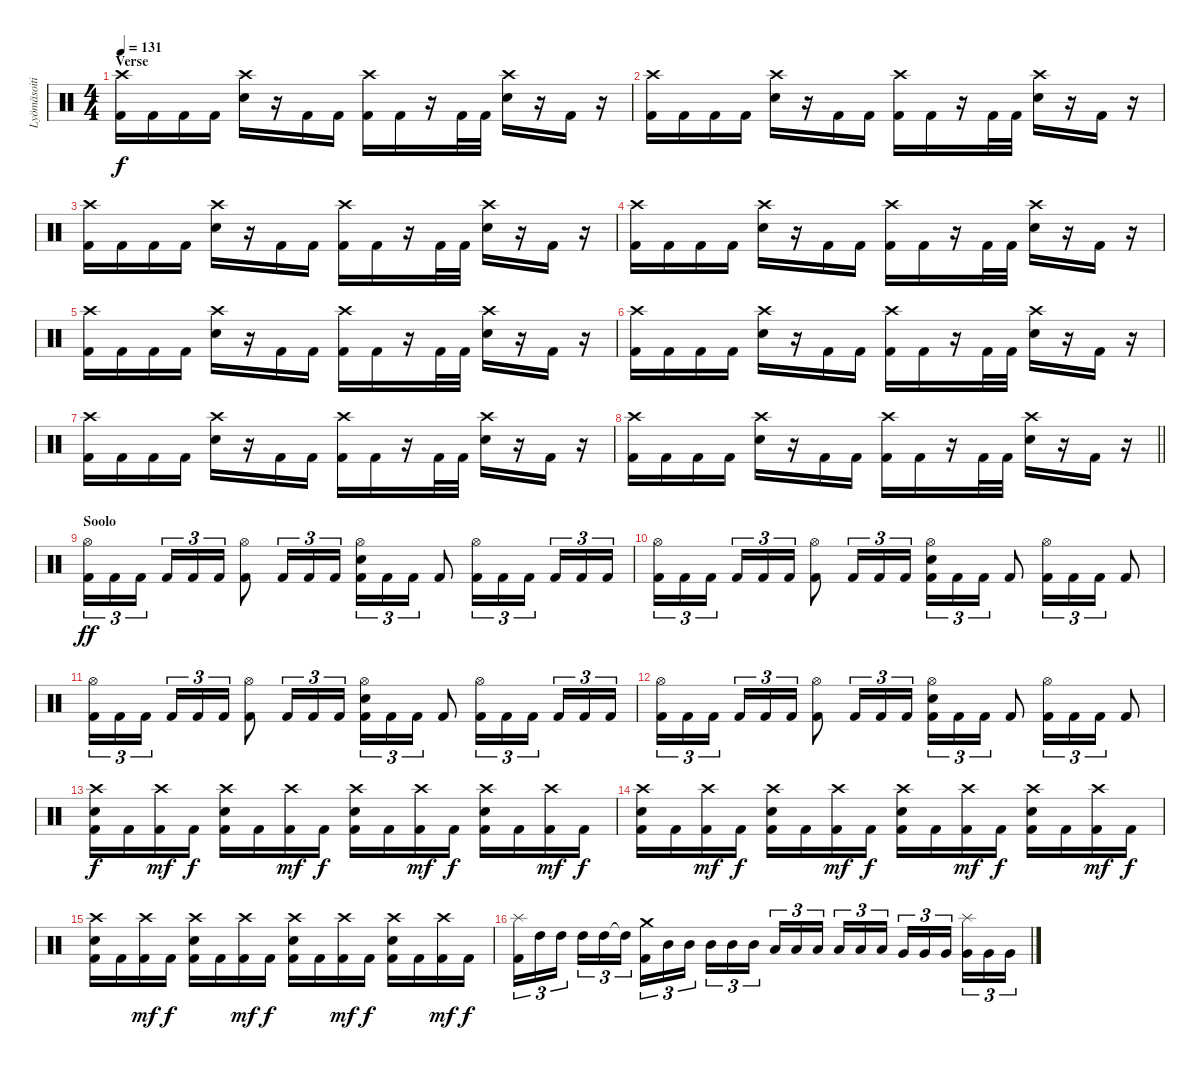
\track ("Lyömäsoitin" "Lyömäsoiti") {instrument percussion}
\staff {score}
\articulation defaults
\ts (4 4)
\section ("" "Verse")
\tempo 131
\clef neutral
\ks c
("Crash high (hit)" "Kick (hit) 2").16{dy f} "Kick (hit) 2".16 "Kick (hit) 2".16 "Kick (hit) 2".16 ("Crash high (hit)" "Electric Snare (hit)").16 r.16 "Kick (hit) 2".16 "Kick (hit) 2".16 ("Crash high (hit)" "Kick (hit) 2").16 "Kick (hit) 2".16 r.16 "Kick (hit) 2".32 "Kick (hit) 2".32 ("Crash high (hit)" "Electric Snare (hit)").16 r.16 "Kick (hit) 2".16 r.16 |
("Crash high (hit)" "Kick (hit) 2").16 "Kick (hit) 2".16 "Kick (hit) 2".16 "Kick (hit) 2".16 ("Crash high (hit)" "Electric Snare (hit)").16 r.16 "Kick (hit) 2".16 "Kick (hit) 2".16 ("Crash high (hit)" "Kick (hit) 2").16 "Kick (hit) 2".16 r.16 "Kick (hit) 2".32 "Kick (hit) 2".32 ("Crash high (hit)" "Electric Snare (hit)").16 r.16 "Kick (hit) 2".16 r.16 |
("Crash high (hit)" "Kick (hit) 2").16 "Kick (hit) 2".16 "Kick (hit) 2".16 "Kick (hit) 2".16 ("Crash high (hit)" "Electric Snare (hit)").16 r.16 "Kick (hit) 2".16 "Kick (hit) 2".16 ("Crash high (hit)" "Kick (hit) 2").16 "Kick (hit) 2".16 r.16 "Kick (hit) 2".32 "Kick (hit) 2".32 ("Crash high (hit)" "Electric Snare (hit)").16 r.16 "Kick (hit) 2".16 r.16 |
("Crash high (hit)" "Kick (hit) 2").16 "Kick (hit) 2".16 "Kick (hit) 2".16 "Kick (hit) 2".16 ("Crash high (hit)" "Electric Snare (hit)").16 r.16 "Kick (hit) 2".16 "Kick (hit) 2".16 ("Crash high (hit)" "Kick (hit) 2").16 "Kick (hit) 2".16 r.16 "Kick (hit) 2".32 "Kick (hit) 2".32 ("Crash high (hit)" "Electric Snare (hit)").16 r.16 "Kick (hit) 2".16 r.16 |
("Crash high (hit)" "Kick (hit) 2").16 "Kick (hit) 2".16 "Kick (hit) 2".16 "Kick (hit) 2".16 ("Crash high (hit)" "Electric Snare (hit)").16 r.16 "Kick (hit) 2".16 "Kick (hit) 2".16 ("Crash high (hit)" "Kick (hit) 2").16 "Kick (hit) 2".16 r.16 "Kick (hit) 2".32 "Kick (hit) 2".32 ("Crash high (hit)" "Electric Snare (hit)").16 r.16 "Kick (hit) 2".16 r.16 |
("Crash high (hit)" "Kick (hit) 2").16 "Kick (hit) 2".16 "Kick (hit) 2".16 "Kick (hit) 2".16 ("Crash high (hit)" "Electric Snare (hit)").16 r.16 "Kick (hit) 2".16 "Kick (hit) 2".16 ("Crash high (hit)" "Kick (hit) 2").16 "Kick (hit) 2".16 r.16 "Kick (hit) 2".32 "Kick (hit) 2".32 ("Crash high (hit)" "Electric Snare (hit)").16 r.16 "Kick (hit) 2".16 r.16 |
("Crash high (hit)" "Kick (hit) 2").16 "Kick (hit) 2".16 "Kick (hit) 2".16 "Kick (hit) 2".16 ("Crash high (hit)" "Electric Snare (hit)").16 r.16 "Kick (hit) 2".16 "Kick (hit) 2".16 ("Crash high (hit)" "Kick (hit) 2").16 "Kick (hit) 2".16 r.16 "Kick (hit) 2".32 "Kick (hit) 2".32 ("Crash high (hit)" "Electric Snare (hit)").16 r.16 "Kick (hit) 2".16 r.16 |
\barLineRight lightlight
("Crash high (hit)" "Kick (hit) 2").16 "Kick (hit) 2".16 "Kick (hit) 2".16 "Kick (hit) 2".16 ("Crash high (hit)" "Electric Snare (hit)").16 r.16 "Kick (hit) 2".16 "Kick (hit) 2".16 ("Crash high (hit)" "Kick (hit) 2").16 "Kick (hit) 2".16 r.16 "Kick (hit) 2".32 "Kick (hit) 2".32 ("Crash high (hit)" "Electric Snare (hit)").16 r.16 "Kick (hit) 2".16 r.16 |
\section ("" "Soolo")
("Hi-Hat (open)" "Kick (hit) 2").16{tu (3 2) dy ff} "Kick (hit) 2".16{tu (3 2)} "Kick (hit) 2".16{tu (3 2)} "Kick (hit) 2".16{tu (3 2)} "Kick (hit) 2".16{tu (3 2)} "Kick (hit) 2".16{tu (3 2)} ("Hi-Hat (open)" "Kick (hit) 2").8 "Kick (hit) 2".16{tu (3 2)} "Kick (hit) 2".16{tu (3 2)} "Kick (hit) 2".16{tu (3 2)} ("Hi-Hat (open)" "Electric Snare (hit)" "Kick (hit) 2").16{tu (3 2)} "Kick (hit) 2".16{tu (3 2)} "Kick (hit) 2".16{tu (3 2)} "Kick (hit) 2".8 ("Hi-Hat (open)" "Kick (hit) 2").16{tu (3 2)} "Kick (hit) 2".16{tu (3 2)} "Kick (hit) 2".16{tu (3 2)} "Kick (hit) 2".16{tu (3 2)} "Kick (hit) 2".16{tu (3 2)} "Kick (hit) 2".16{tu (3 2)} |
("Hi-Hat (open)" "Kick (hit) 2").16{tu (3 2)} "Kick (hit) 2".16{tu (3 2)} "Kick (hit) 2".16{tu (3 2)} "Kick (hit) 2".16{tu (3 2)} "Kick (hit) 2".16{tu (3 2)} "Kick (hit) 2".16{tu (3 2)} ("Hi-Hat (open)" "Kick (hit) 2").8 "Kick (hit) 2".16{tu (3 2)} "Kick (hit) 2".16{tu (3 2)} "Kick (hit) 2".16{tu (3 2)} ("Hi-Hat (open)" "Electric Snare (hit)" "Kick (hit) 2").16{tu (3 2)} "Kick (hit) 2".16{tu (3 2)} "Kick (hit) 2".16{tu (3 2)} "Kick (hit) 2".8 ("Hi-Hat (open)" "Kick (hit) 2").16{tu (3 2)} "Kick (hit) 2".16{tu (3 2)} "Kick (hit) 2".16{tu (3 2)} "Kick (hit) 2".8 |
("Hi-Hat (open)" "Kick (hit) 2").16{tu (3 2)} "Kick (hit) 2".16{tu (3 2)} "Kick (hit) 2".16{tu (3 2)} "Kick (hit) 2".16{tu (3 2)} "Kick (hit) 2".16{tu (3 2)} "Kick (hit) 2".16{tu (3 2)} ("Hi-Hat (open)" "Kick (hit) 2").8 "Kick (hit) 2".16{tu (3 2)} "Kick (hit) 2".16{tu (3 2)} "Kick (hit) 2".16{tu (3 2)} ("Hi-Hat (open)" "Electric Snare (hit)" "Kick (hit) 2").16{tu (3 2)} "Kick (hit) 2".16{tu (3 2)} "Kick (hit) 2".16{tu (3 2)} "Kick (hit) 2".8 ("Hi-Hat (open)" "Kick (hit) 2").16{tu (3 2)} "Kick (hit) 2".16{tu (3 2)} "Kick (hit) 2".16{tu (3 2)} "Kick (hit) 2".16{tu (3 2)} "Kick (hit) 2".16{tu (3 2)} "Kick (hit) 2".16{tu (3 2)} |
("Hi-Hat (open)" "Kick (hit) 2").16{tu (3 2)} "Kick (hit) 2".16{tu (3 2)} "Kick (hit) 2".16{tu (3 2)} "Kick (hit) 2".16{tu (3 2)} "Kick (hit) 2".16{tu (3 2)} "Kick (hit) 2".16{tu (3 2)} ("Hi-Hat (open)" "Kick (hit) 2").8 "Kick (hit) 2".16{tu (3 2)} "Kick (hit) 2".16{tu (3 2)} "Kick (hit) 2".16{tu (3 2)} ("Hi-Hat (open)" "Electric Snare (hit)" "Kick (hit) 2").16{tu (3 2)} "Kick (hit) 2".16{tu (3 2)} "Kick (hit) 2".16{tu (3 2)} "Kick (hit) 2".8 ("Hi-Hat (open)" "Kick (hit) 2").16{tu (3 2)} "Kick (hit) 2".16{tu (3 2)} "Kick (hit) 2".16{tu (3 2)} "Kick (hit) 2".8 |
("Crash high (hit)" "Electric Snare (hit)" "Kick (hit) 2").16{dy f} "Kick (hit) 2".16 ("Crash high (hit)" "Kick (hit) 2").16{dy mf} "Kick (hit) 2".16{dy f} ("Crash high (hit)" "Electric Snare (hit)" "Kick (hit) 2").16 "Kick (hit) 2".16 ("Crash high (hit)" "Kick (hit) 2").16{dy mf} "Kick (hit) 2".16{dy f} ("Crash high (hit)" "Electric Snare (hit)" "Kick (hit) 2").16 "Kick (hit) 2".16 ("Crash high (hit)" "Kick (hit) 2").16{dy mf} "Kick (hit) 2".16{dy f} ("Crash high (hit)" "Electric Snare (hit)" "Kick (hit) 2").16 "Kick (hit) 2".16 ("Crash high (hit)" "Kick (hit) 2").16{dy mf} "Kick (hit) 2".16{dy f} |
("Crash high (hit)" "Electric Snare (hit)" "Kick (hit) 2").16 "Kick (hit) 2".16 ("Crash high (hit)" "Kick (hit) 2").16{dy mf} "Kick (hit) 2".16{dy f} ("Crash high (hit)" "Electric Snare (hit)" "Kick (hit) 2").16 "Kick (hit) 2".16 ("Crash high (hit)" "Kick (hit) 2").16{dy mf} "Kick (hit) 2".16{dy f} ("Crash high (hit)" "Electric Snare (hit)" "Kick (hit) 2").16 "Kick (hit) 2".16 ("Crash high (hit)" "Kick (hit) 2").16{dy mf} "Kick (hit) 2".16{dy f} ("Crash high (hit)" "Electric Snare (hit)" "Kick (hit) 2").16 "Kick (hit) 2".16 ("Crash high (hit)" "Kick (hit) 2").16{dy mf} "Kick (hit) 2".16{dy f} |
("Crash high (hit)" "Electric Snare (hit)" "Kick (hit) 2").16 "Kick (hit) 2".16 ("Crash high (hit)" "Kick (hit) 2").16{dy mf} "Kick (hit) 2".16{dy f} ("Crash high (hit)" "Electric Snare (hit)" "Kick (hit) 2").16 "Kick (hit) 2".16 ("Crash high (hit)" "Kick (hit) 2").16{dy mf} "Kick (hit) 2".16{dy f} ("Crash high (hit)" "Electric Snare (hit)" "Kick (hit) 2").16 "Kick (hit) 2".16 ("Crash high (hit)" "Kick (hit) 2").16{dy mf} "Kick (hit) 2".16{dy f} ("Crash high (hit)" "Electric Snare (hit)" "Kick (hit) 2").16 "Kick (hit) 2".16 ("Crash high (hit)" "Kick (hit) 2").16{dy mf} "Kick (hit) 2".16{dy f} |
("Splash (hit)" "Kick (hit) 2").16{tu (3 2)} "High Tom (hit)".16{tu (3 2)} "High Tom (hit)".16{tu (3 2)} "High Tom (hit)".16{tu (3 2)} "High Tom (hit)".16{tu (3 2)} "High Tom (hit)"{t}.16{tu (3 2)} ("Crash medium (hit)" "Kick (hit) 2").16{tu (3 2)} "Mid Tom (hit)".16{tu (3 2)} "Mid Tom (hit)".16{tu (3 2)} "Mid Tom (hit)".16{tu (3 2)} "Mid Tom (hit)".16{tu (3 2)} "Mid Tom (hit)".16{tu (3 2)} "Low Tom (hit)".16{tu (3 2)} "Low Tom (hit)".16{tu (3 2)} "Low Tom (hit)".16{tu (3 2)} "Low Tom (hit)".16{tu (3 2)} "Low Tom (hit)".16{tu (3 2)} "Low Tom (hit)".16{tu (3 2)} "Very Low Tom (hit)".16{tu (3 2)} "Very Low Tom (hit)".16{tu (3 2)} "Very Low Tom (hit)".16{tu (3 2)} ("Splash (hit)" "Very Low Tom (hit)").16{tu (3 2)} "Very Low Tom (hit)".16{tu (3 2)} "Very Low Tom (hit)".16{tu (3 2)}
